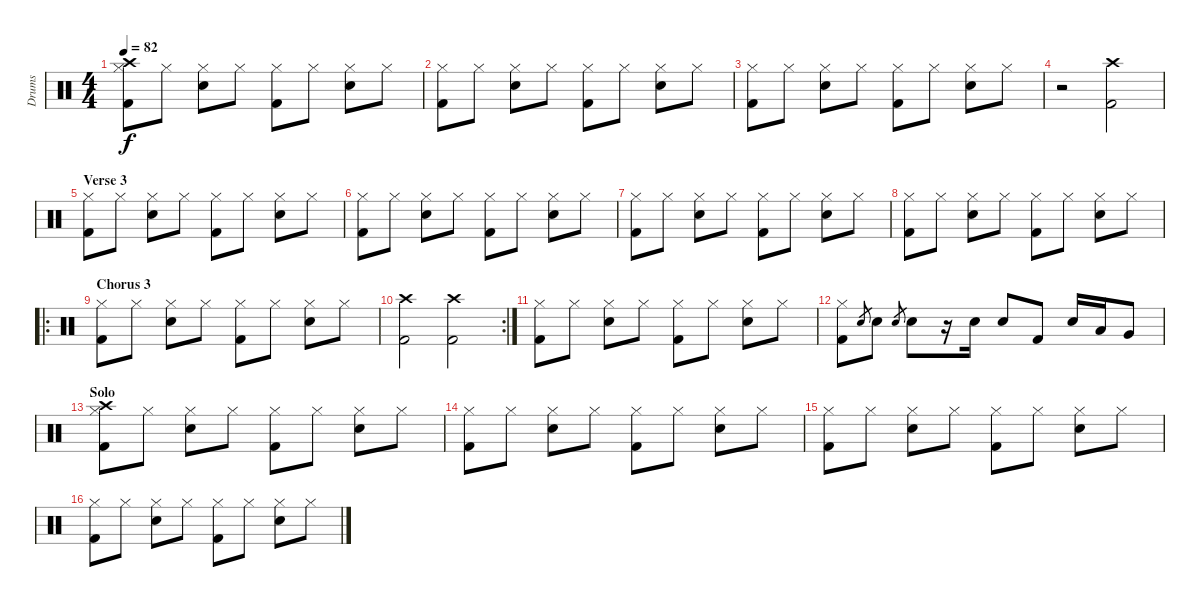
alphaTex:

\track ("Drums" "Drums") {instrument percussion}
\staff {score}
\articulation defaults
\ts (4 4)
\tempo 82
\clef neutral
\ks c
("Hi-Hat (closed)" "Kick (hit) 2" "Crash high (hit)").8{dy f} "Hi-Hat (closed)".8 ("Hi-Hat (closed)" "Snare (hit) 2").8 "Hi-Hat (closed)".8 ("Hi-Hat (closed)" "Kick (hit) 2").8 "Hi-Hat (closed)".8 ("Hi-Hat (closed)" "Snare (hit) 2").8 "Hi-Hat (closed)".8 |
("Hi-Hat (closed)" "Kick (hit) 2").8 "Hi-Hat (closed)".8 ("Hi-Hat (closed)" "Snare (hit) 2").8 "Hi-Hat (closed)".8 ("Hi-Hat (closed)" "Kick (hit) 2").8 "Hi-Hat (closed)".8 ("Hi-Hat (closed)" "Snare (hit) 2").8 "Hi-Hat (closed)".8 |
("Hi-Hat (closed)" "Kick (hit) 2").8 "Hi-Hat (closed)".8 ("Hi-Hat (closed)" "Snare (hit) 2").8 "Hi-Hat (closed)".8 ("Hi-Hat (closed)" "Kick (hit) 2").8 "Hi-Hat (closed)".8 ("Hi-Hat (closed)" "Snare (hit) 2").8 "Hi-Hat (closed)".8 |
r.2 ("Kick (hit) 2" "Crash high (hit)").2 |
\section ("" "Verse 3")
("Hi-Hat (closed)" "Kick (hit) 2").8 "Hi-Hat (closed)".8 ("Hi-Hat (closed)" "Snare (hit) 2").8 "Hi-Hat (closed)".8 ("Hi-Hat (closed)" "Kick (hit) 2").8 "Hi-Hat (closed)".8 ("Hi-Hat (closed)" "Snare (hit) 2").8 "Hi-Hat (closed)".8 |
("Hi-Hat (closed)" "Kick (hit) 2").8 "Hi-Hat (closed)".8 ("Hi-Hat (closed)" "Snare (hit) 2").8 "Hi-Hat (closed)".8 ("Hi-Hat (closed)" "Kick (hit) 2").8 "Hi-Hat (closed)".8 ("Hi-Hat (closed)" "Snare (hit) 2").8 "Hi-Hat (closed)".8 |
("Hi-Hat (closed)" "Kick (hit) 2").8 "Hi-Hat (closed)".8 ("Hi-Hat (closed)" "Snare (hit) 2").8 "Hi-Hat (closed)".8 ("Hi-Hat (closed)" "Kick (hit) 2").8 "Hi-Hat (closed)".8 ("Hi-Hat (closed)" "Snare (hit) 2").8 "Hi-Hat (closed)".8 |
("Hi-Hat (closed)" "Kick (hit) 2").8 "Hi-Hat (closed)".8 ("Hi-Hat (closed)" "Snare (hit) 2").8 "Hi-Hat (closed)".8 ("Hi-Hat (closed)" "Kick (hit) 2").8 "Hi-Hat (closed)".8 ("Hi-Hat (closed)" "Snare (hit) 2").8 "Hi-Hat (closed)".8 |
\ro
\section ("" "Chorus 3")
("Hi-Hat (closed)" "Kick (hit) 2").8 "Hi-Hat (closed)".8 ("Hi-Hat (closed)" "Snare (hit) 2").8 "Hi-Hat (closed)".8 ("Hi-Hat (closed)" "Kick (hit) 2").8 "Hi-Hat (closed)".8 ("Hi-Hat (closed)" "Snare (hit) 2").8 "Hi-Hat (closed)".8 |
\rc 2
("Kick (hit) 2" "Crash high (hit)").2 ("Kick (hit) 2" "Crash high (hit)").2 |
("Hi-Hat (closed)" "Kick (hit) 2").8 "Hi-Hat (closed)".8 ("Hi-Hat (closed)" "Snare (hit) 2").8 "Hi-Hat (closed)".8 ("Hi-Hat (closed)" "Kick (hit) 2").8 "Hi-Hat (closed)".8 ("Hi-Hat (closed)" "Snare (hit) 2").8 "Hi-Hat (closed)".8 |
("Hi-Hat (closed)" "Kick (hit) 2").8 "Snare (hit) 2".8{gr} "Snare (hit) 2".8 "Snare (hit) 2".8{gr} "Snare (hit) 2".8 r.16 "Snare (hit) 2".16 "Snare (hit) 2".8 "Kick (hit) 2".8 "Snare (hit) 2".16 "Low Tom (hit)".16 "Very Low Tom (hit)".8 |
\section ("" "Solo")
("Hi-Hat (closed)" "Kick (hit) 2" "Crash high (hit)").8 "Hi-Hat (closed)".8 ("Hi-Hat (closed)" "Snare (hit) 2").8 "Hi-Hat (closed)".8 ("Hi-Hat (closed)" "Kick (hit) 2").8 "Hi-Hat (closed)".8 ("Hi-Hat (closed)" "Snare (hit) 2").8 "Hi-Hat (closed)".8 |
("Hi-Hat (closed)" "Kick (hit) 2").8 "Hi-Hat (closed)".8 ("Hi-Hat (closed)" "Snare (hit) 2").8 "Hi-Hat (closed)".8 ("Hi-Hat (closed)" "Kick (hit) 2").8 "Hi-Hat (closed)".8 ("Hi-Hat (closed)" "Snare (hit) 2").8 "Hi-Hat (closed)".8 |
("Hi-Hat (closed)" "Kick (hit) 2").8 "Hi-Hat (closed)".8 ("Hi-Hat (closed)" "Snare (hit) 2").8 "Hi-Hat (closed)".8 ("Hi-Hat (closed)" "Kick (hit) 2").8 "Hi-Hat (closed)".8 ("Hi-Hat (closed)" "Snare (hit) 2").8 "Hi-Hat (closed)".8 |
("Hi-Hat (closed)" "Kick (hit) 2").8 "Hi-Hat (closed)".8 ("Hi-Hat (closed)" "Snare (hit) 2").8 "Hi-Hat (closed)".8 ("Hi-Hat (closed)" "Kick (hit) 2").8 "Hi-Hat (closed)".8 ("Hi-Hat (closed)" "Snare (hit) 2").8 "Hi-Hat (closed)".8
